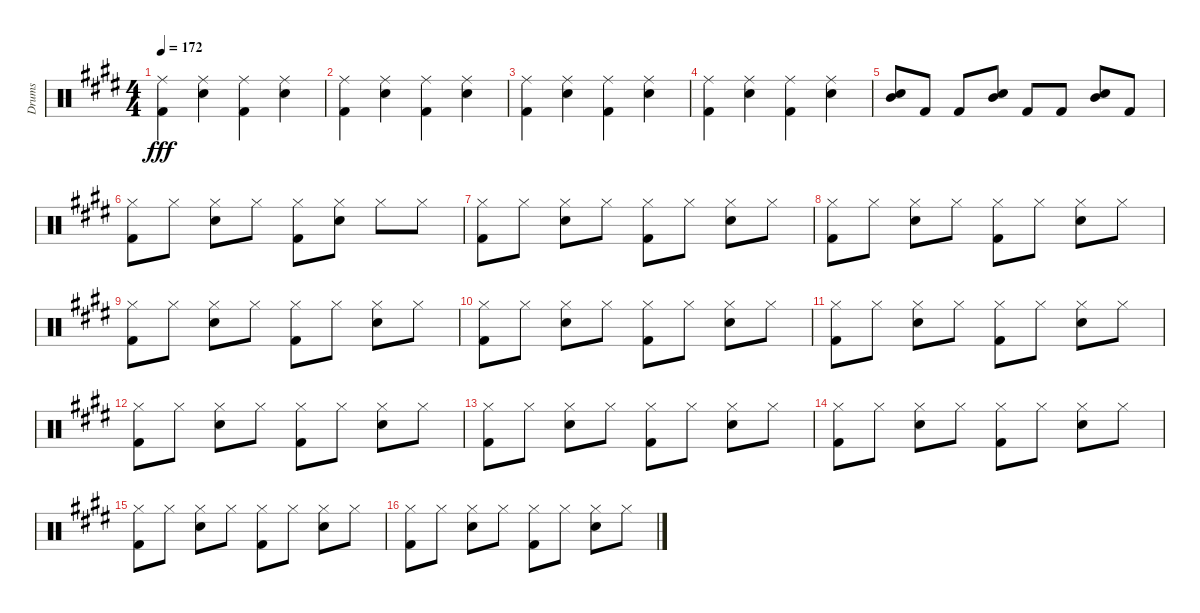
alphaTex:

\track ("Drums" "Drums") {instrument percussion}
\staff {score}
\articulation defaults
\ts (4 4)
\tempo 172
\clef neutral
\ks e
("Ride (middle)" "Kick (hit) 2").4{dy fff} ("Ride (middle)" "Electric Snare (hit)").4 ("Ride (middle)" "Kick (hit) 2").4 ("Ride (middle)" "Electric Snare (hit)").4 |
("Ride (middle)" "Kick (hit) 2").4 ("Ride (middle)" "Electric Snare (hit)").4 ("Ride (middle)" "Kick (hit) 2").4 ("Ride (middle)" "Electric Snare (hit)").4 |
("Ride (middle)" "Kick (hit) 2").4 ("Ride (middle)" "Electric Snare (hit)").4 ("Ride (middle)" "Kick (hit) 2").4 ("Ride (middle)" "Electric Snare (hit)").4 |
("Ride (middle)" "Kick (hit) 2").4 ("Ride (middle)" "Electric Snare (hit)").4 ("Ride (middle)" "Kick (hit) 2").4 ("Ride (middle)" "Electric Snare (hit)").4 |
("Electric Snare (hit)" "Mid Tom (hit)").8 "Kick (hit) 2".8 "Kick (hit) 2".8 ("Electric Snare (hit)" "Mid Tom (hit)").8 "Kick (hit) 2".8 "Kick (hit) 2".8 ("Electric Snare (hit)" "Mid Tom (hit)").8 "Kick (hit) 2".8 |
("Hi-Hat (closed)" "Kick (hit) 2").8 "Hi-Hat (closed)".8 ("Hi-Hat (closed)" "Electric Snare (hit)").8 "Hi-Hat (closed)".8 ("Hi-Hat (closed)" "Kick (hit) 2").8 ("Hi-Hat (closed)" "Electric Snare (hit)").8 "Hi-Hat (closed)".8 "Hi-Hat (closed)".8 |
("Hi-Hat (closed)" "Kick (hit) 2").8 "Hi-Hat (closed)".8 ("Hi-Hat (closed)" "Electric Snare (hit)").8 "Hi-Hat (closed)".8 ("Hi-Hat (closed)" "Kick (hit) 2").8 "Hi-Hat (closed)".8 ("Hi-Hat (closed)" "Electric Snare (hit)").8 "Hi-Hat (closed)".8 |
("Hi-Hat (closed)" "Kick (hit) 2").8 "Hi-Hat (closed)".8 ("Hi-Hat (closed)" "Electric Snare (hit)").8 "Hi-Hat (closed)".8 ("Hi-Hat (closed)" "Kick (hit) 2").8 "Hi-Hat (closed)".8 ("Hi-Hat (closed)" "Electric Snare (hit)").8 "Hi-Hat (closed)".8 |
("Hi-Hat (closed)" "Kick (hit) 2").8 "Hi-Hat (closed)".8 ("Hi-Hat (closed)" "Electric Snare (hit)").8 "Hi-Hat (closed)".8 ("Hi-Hat (closed)" "Kick (hit) 2").8 "Hi-Hat (closed)".8 ("Hi-Hat (closed)" "Electric Snare (hit)").8 "Hi-Hat (closed)".8 |
("Hi-Hat (closed)" "Kick (hit) 2").8 "Hi-Hat (closed)".8 ("Hi-Hat (closed)" "Electric Snare (hit)").8 "Hi-Hat (closed)".8 ("Hi-Hat (closed)" "Kick (hit) 2").8 "Hi-Hat (closed)".8 ("Hi-Hat (closed)" "Electric Snare (hit)").8 "Hi-Hat (closed)".8 |
("Hi-Hat (closed)" "Kick (hit) 2").8 "Hi-Hat (closed)".8 ("Hi-Hat (closed)" "Electric Snare (hit)").8 "Hi-Hat (closed)".8 ("Hi-Hat (closed)" "Kick (hit) 2").8 "Hi-Hat (closed)".8 ("Hi-Hat (closed)" "Electric Snare (hit)").8 "Hi-Hat (closed)".8 |
("Hi-Hat (closed)" "Kick (hit) 2").8 "Hi-Hat (closed)".8 ("Hi-Hat (closed)" "Electric Snare (hit)").8 "Hi-Hat (closed)".8 ("Hi-Hat (closed)" "Kick (hit) 2").8 "Hi-Hat (closed)".8 ("Hi-Hat (closed)" "Electric Snare (hit)").8 "Hi-Hat (closed)".8 |
("Hi-Hat (closed)" "Kick (hit) 2").8 "Hi-Hat (closed)".8 ("Hi-Hat (closed)" "Electric Snare (hit)").8 "Hi-Hat (closed)".8 ("Hi-Hat (closed)" "Kick (hit) 2").8 "Hi-Hat (closed)".8 ("Hi-Hat (closed)" "Electric Snare (hit)").8 "Hi-Hat (closed)".8 |
("Hi-Hat (closed)" "Kick (hit) 2").8 "Hi-Hat (closed)".8 ("Hi-Hat (closed)" "Electric Snare (hit)").8 "Hi-Hat (closed)".8 ("Hi-Hat (closed)" "Kick (hit) 2").8 "Hi-Hat (closed)".8 ("Hi-Hat (closed)" "Electric Snare (hit)").8 "Hi-Hat (closed)".8 |
("Hi-Hat (closed)" "Kick (hit) 2").8 "Hi-Hat (closed)".8 ("Hi-Hat (closed)" "Electric Snare (hit)").8 "Hi-Hat (closed)".8 ("Hi-Hat (closed)" "Kick (hit) 2").8 "Hi-Hat (closed)".8 ("Hi-Hat (closed)" "Electric Snare (hit)").8 "Hi-Hat (closed)".8 |
("Hi-Hat (closed)" "Kick (hit) 2").8 "Hi-Hat (closed)".8 ("Hi-Hat (closed)" "Electric Snare (hit)").8 "Hi-Hat (closed)".8 ("Hi-Hat (closed)" "Kick (hit) 2").8 "Hi-Hat (closed)".8 ("Hi-Hat (closed)" "Electric Snare (hit)").8 "Hi-Hat (closed)".8
